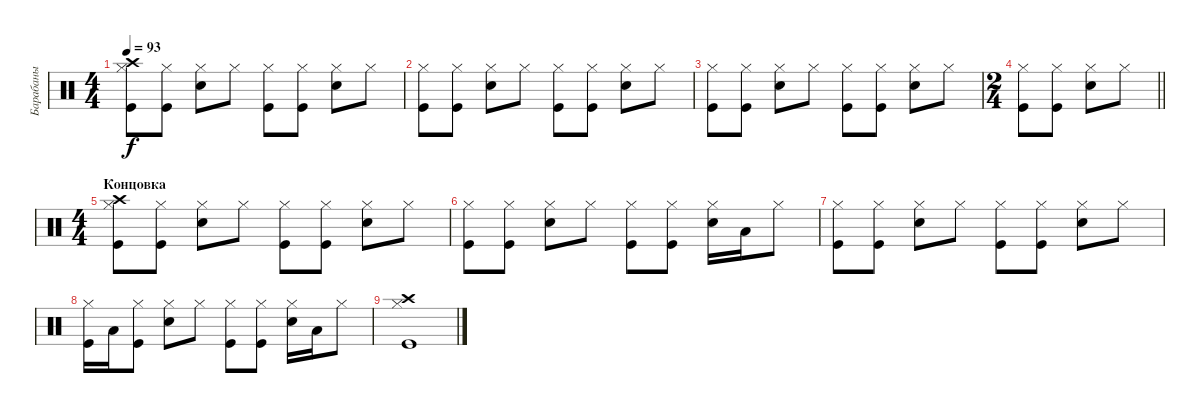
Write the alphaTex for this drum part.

\track ("Барабаны" "Барабаны") {instrument percussion}
\staff {score}
\articulation defaults
\ts (4 4)
\tempo 93
\clef neutral
\ks c
("Kick (hit)" "Hi-Hat (closed)" "Crash high (hit)").8{dy f} ("Kick (hit)" "Hi-Hat (closed)").8 ("Snare (hit) 2" "Hi-Hat (closed)").8 "Hi-Hat (closed)".8 ("Kick (hit)" "Hi-Hat (closed)").8 ("Kick (hit)" "Hi-Hat (closed)").8 ("Snare (hit) 2" "Hi-Hat (closed)").8 "Hi-Hat (closed)".8 |
("Kick (hit)" "Hi-Hat (closed)").8 ("Kick (hit)" "Hi-Hat (closed)").8 ("Snare (hit) 2" "Hi-Hat (closed)").8 "Hi-Hat (closed)".8 ("Kick (hit)" "Hi-Hat (closed)").8 ("Kick (hit)" "Hi-Hat (closed)").8 ("Snare (hit) 2" "Hi-Hat (closed)").8 "Hi-Hat (closed)".8 |
("Kick (hit)" "Hi-Hat (closed)").8 ("Kick (hit)" "Hi-Hat (closed)").8 ("Snare (hit) 2" "Hi-Hat (closed)").8 "Hi-Hat (closed)".8 ("Kick (hit)" "Hi-Hat (closed)").8 ("Kick (hit)" "Hi-Hat (closed)").8 ("Snare (hit) 2" "Hi-Hat (closed)").8 "Hi-Hat (closed)".8 |
\ts (2 4)
\barLineRight lightlight
("Kick (hit)" "Hi-Hat (closed)").8 ("Kick (hit)" "Hi-Hat (closed)").8 ("Snare (hit) 2" "Hi-Hat (closed)").8 "Hi-Hat (closed)".8 |
\ts (4 4)
\section ("" "Концовка")
("Kick (hit)" "Hi-Hat (closed)" "Crash high (hit)").8 ("Kick (hit)" "Hi-Hat (closed)").8 ("Snare (hit) 2" "Hi-Hat (closed)").8 "Hi-Hat (closed)".8 ("Kick (hit)" "Hi-Hat (closed)").8 ("Kick (hit)" "Hi-Hat (closed)").8 ("Snare (hit) 2" "Hi-Hat (closed)").8 "Hi-Hat (closed)".8 |
("Kick (hit)" "Hi-Hat (closed)").8 ("Kick (hit)" "Hi-Hat (closed)").8 ("Snare (hit) 2" "Hi-Hat (closed)").8 "Hi-Hat (closed)".8 ("Kick (hit)" "Hi-Hat (closed)").8 ("Kick (hit)" "Hi-Hat (closed)").8 ("Snare (hit) 2" "Hi-Hat (closed)").16 "Low Tom (hit)".16 "Hi-Hat (closed)".8 |
("Kick (hit)" "Hi-Hat (closed)").8 ("Kick (hit)" "Hi-Hat (closed)").8 ("Snare (hit) 2" "Hi-Hat (closed)").8 "Hi-Hat (closed)".8 ("Kick (hit)" "Hi-Hat (closed)").8 ("Kick (hit)" "Hi-Hat (closed)").8 ("Snare (hit) 2" "Hi-Hat (closed)").8 "Hi-Hat (closed)".8 |
("Kick (hit)" "Hi-Hat (closed)").16 "Low Tom (hit)".16 ("Kick (hit)" "Hi-Hat (closed)").8 ("Snare (hit) 2" "Hi-Hat (closed)").8 "Hi-Hat (closed)".8 ("Kick (hit)" "Hi-Hat (closed)").8 ("Kick (hit)" "Hi-Hat (closed)").8 ("Snare (hit) 2" "Hi-Hat (closed)").16 "Low Floor Tom (hit)".16 "Hi-Hat (closed)".8 |
("Kick (hit)" "Hi-Hat (closed)" "Crash high (hit)").1
